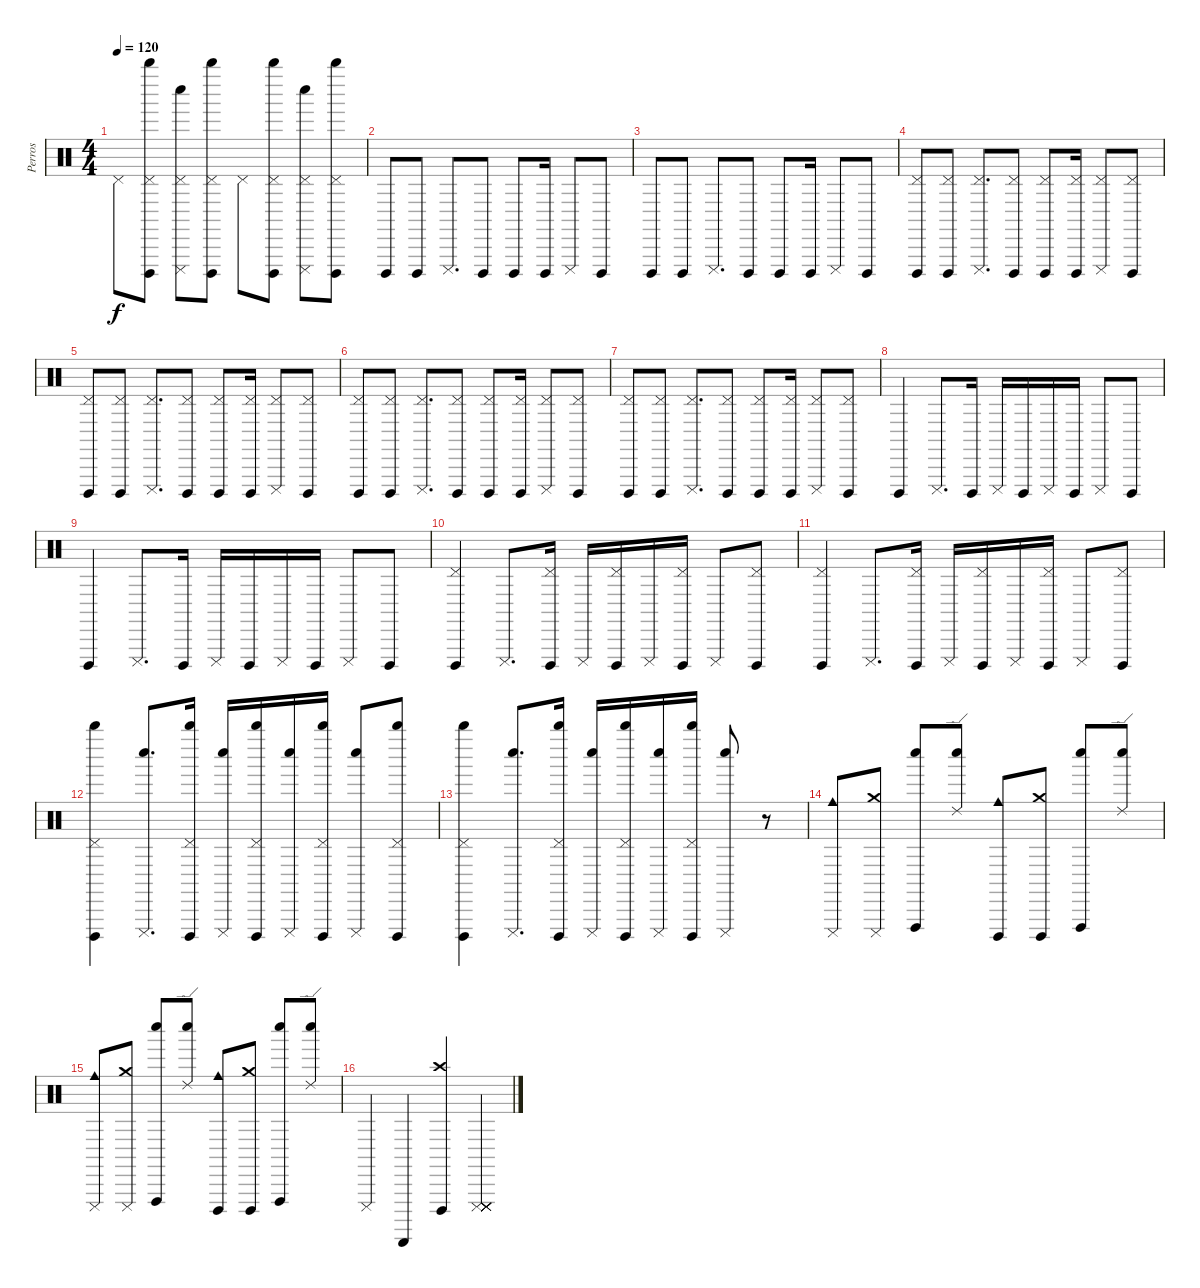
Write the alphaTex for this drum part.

\track ("Perros" "Perros") {instrument percussion}
\staff {score}
\articulation defaults
\ts (4 4)
\tempo 120
\clef neutral
\ks c "Pedal Hi-Hat (hit)".8{dy f}
("Cuica (open)" "Whistle high (hit)" "Pedal Hi-Hat (hit)").8 ("Cuica (mute)" "Whistle low (hit)" "Pedal Hi-Hat (hit)").8 ("Cuica (open)" "Whistle high (hit)" "Pedal Hi-Hat (hit)").8 "Pedal Hi-Hat (hit)".8 ("Cuica (open)" "Whistle high (hit)" "Pedal Hi-Hat (hit)").8 ("Cuica (mute)" "Whistle low (hit)" "Pedal Hi-Hat (hit)").8 ("Cuica (open)" "Whistle high (hit)" "Pedal Hi-Hat (hit)").8 |
"Cuica (open)".8 "Cuica (open)".8 "Cuica (mute)".8{d} "Cuica (open)".8 "Cuica (open)".8 "Cuica (open)".16 "Cuica (mute)".8 "Cuica (open)".8 |
"Cuica (open)".8 "Cuica (open)".8 "Cuica (mute)".8{d} "Cuica (open)".8 "Cuica (open)".8 "Cuica (open)".16 "Cuica (mute)".8 "Cuica (open)".8 |
("Cuica (open)" "Pedal Hi-Hat (hit)").8 ("Cuica (open)" "Pedal Hi-Hat (hit)").8 ("Cuica (mute)" "Pedal Hi-Hat (hit)").8{d} ("Cuica (open)" "Pedal Hi-Hat (hit)").8 ("Cuica (open)" "Pedal Hi-Hat (hit)").8 ("Cuica (open)" "Pedal Hi-Hat (hit)").16 ("Cuica (mute)" "Pedal Hi-Hat (hit)").8 ("Cuica (open)" "Pedal Hi-Hat (hit)").8 |
("Cuica (open)" "Pedal Hi-Hat (hit)").8 ("Cuica (open)" "Pedal Hi-Hat (hit)").8 ("Cuica (mute)" "Pedal Hi-Hat (hit)").8{d} ("Cuica (open)" "Pedal Hi-Hat (hit)").8 ("Cuica (open)" "Pedal Hi-Hat (hit)").8 ("Cuica (open)" "Pedal Hi-Hat (hit)").16 ("Cuica (mute)" "Pedal Hi-Hat (hit)").8 ("Cuica (open)" "Pedal Hi-Hat (hit)").8 |
("Cuica (open)" "Pedal Hi-Hat (hit)").8 ("Cuica (open)" "Pedal Hi-Hat (hit)").8 ("Cuica (mute)" "Pedal Hi-Hat (hit)").8{d} ("Cuica (open)" "Pedal Hi-Hat (hit)").8 ("Cuica (open)" "Pedal Hi-Hat (hit)").8 ("Cuica (open)" "Pedal Hi-Hat (hit)").16 ("Cuica (mute)" "Pedal Hi-Hat (hit)").8 ("Cuica (open)" "Pedal Hi-Hat (hit)").8 |
("Cuica (open)" "Pedal Hi-Hat (hit)").8 ("Cuica (open)" "Pedal Hi-Hat (hit)").8 ("Cuica (mute)" "Pedal Hi-Hat (hit)").8{d} ("Cuica (open)" "Pedal Hi-Hat (hit)").8 ("Cuica (open)" "Pedal Hi-Hat (hit)").8 ("Cuica (open)" "Pedal Hi-Hat (hit)").16 ("Cuica (mute)" "Pedal Hi-Hat (hit)").8 ("Cuica (open)" "Pedal Hi-Hat (hit)").8 |
"Cuica (open)".4 "Cuica (mute)".8{d} "Cuica (open)".16 "Cuica (mute)".16 "Cuica (open)".16 "Cuica (mute)".16 "Cuica (open)".16 "Cuica (mute)".8 "Cuica (open)".8 |
"Cuica (open)".4 "Cuica (mute)".8{d} "Cuica (open)".16 "Cuica (mute)".16 "Cuica (open)".16 "Cuica (mute)".16 "Cuica (open)".16 "Cuica (mute)".8 "Cuica (open)".8 |
("Cuica (open)" "Pedal Hi-Hat (hit)").4 "Cuica (mute)".8{d} ("Cuica (open)" "Pedal Hi-Hat (hit)").16 "Cuica (mute)".16 ("Cuica (open)" "Pedal Hi-Hat (hit)").16 "Cuica (mute)".16 ("Cuica (open)" "Pedal Hi-Hat (hit)").16 "Cuica (mute)".8 ("Cuica (open)" "Pedal Hi-Hat (hit)").8 |
("Cuica (open)" "Pedal Hi-Hat (hit)").4 "Cuica (mute)".8{d} ("Cuica (open)" "Pedal Hi-Hat (hit)").16 "Cuica (mute)".16 ("Cuica (open)" "Pedal Hi-Hat (hit)").16 "Cuica (mute)".16 ("Cuica (open)" "Pedal Hi-Hat (hit)").16 "Cuica (mute)".8 ("Cuica (open)" "Pedal Hi-Hat (hit)").8 |
("Cuica (open)" "Whistle high (hit)" "Pedal Hi-Hat (hit)").4 ("Cuica (mute)" "Whistle low (hit)").8{d} ("Cuica (open)" "Whistle high (hit)" "Pedal Hi-Hat (hit)").16 ("Cuica (mute)" "Whistle low (hit)").16 ("Cuica (open)" "Whistle high (hit)" "Pedal Hi-Hat (hit)").16 ("Cuica (mute)" "Whistle low (hit)").16 ("Cuica (open)" "Whistle high (hit)" "Pedal Hi-Hat (hit)").16 ("Cuica (mute)" "Whistle low (hit)").8 ("Cuica (open)" "Whistle high (hit)" "Pedal Hi-Hat (hit)").8 |
("Cuica (open)" "Whistle high (hit)" "Pedal Hi-Hat (hit)").4 ("Cuica (mute)" "Whistle low (hit)").8{d} ("Cuica (open)" "Whistle high (hit)" "Pedal Hi-Hat (hit)").16 ("Cuica (mute)" "Whistle low (hit)").16 ("Cuica (open)" "Whistle high (hit)" "Pedal Hi-Hat (hit)").16 ("Cuica (mute)" "Whistle low (hit)").16 ("Cuica (open)" "Whistle high (hit)" "Pedal Hi-Hat (hit)").16 ("Cuica (mute)" "Whistle low (hit)").8 r.8 |
("Cuica (mute)" "Cowbell medium (hit)").8 ("Cuica (mute)" "Crash medium (hit)").8 ("Whistle low (hit)" "Vibraslap (hit)").8 ("Whistle low (hit)" "Ride (edge) 2").8 ("Cuica (open)" "Cowbell medium (hit)").8 ("Cuica (open)" "Crash medium (hit)").8 ("Whistle low (hit)" "Vibraslap (hit)").8 ("Whistle low (hit)" "Ride (edge) 2").8 |
("Cuica (mute)" "Cowbell medium (hit)").8 ("Cuica (mute)" "Crash medium (hit)").8 ("Whistle low (hit)" "Vibraslap (hit)").8 ("Whistle low (hit)" "Ride (edge) 2").8 ("Cuica (open)" "Cowbell medium (hit)").8 ("Cuica (open)" "Crash medium (hit)").8 ("Whistle low (hit)" "Vibraslap (hit)").8 ("Whistle low (hit)" "Ride (edge) 2").8 |
"Cuica (mute)".4 "Guiro (scrap-return)".4 ("Crash high (hit)" "Cuica (open)").4 ("Cuica (mute)" "Cuica (mute)" "Cuica (mute)" "Cuica (mute)" "Cuica (mute)" "Cuica (mute)").4
